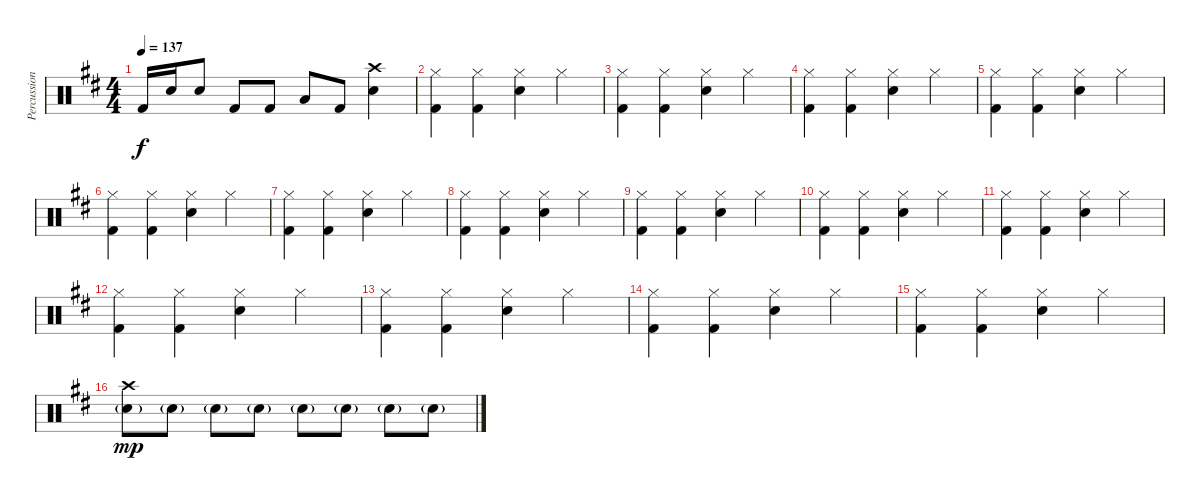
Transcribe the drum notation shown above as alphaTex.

\track ("Percussion" "Percussion") {instrument percussion}
\staff {score}
\articulation defaults
\ts (4 4)
\tempo 137
\clef neutral
\ks d "Kick (hit) 2".16{dy f} "Snare (hit) 2".16 "Snare (hit) 2".8 "Kick (hit) 2".8 "Kick (hit) 2".8 "Low Tom (hit)".8 "Kick (hit) 2".8
("Crash high (hit)" "Snare (hit) 2").4 |
("Hi-Hat (closed)" "Kick (hit) 2").4 ("Hi-Hat (closed)" "Kick (hit) 2").4 ("Hi-Hat (closed)" "Snare (hit) 2").4 "Hi-Hat (closed)".4 |
("Hi-Hat (closed)" "Kick (hit) 2").4 ("Hi-Hat (closed)" "Kick (hit) 2").4 ("Hi-Hat (closed)" "Snare (hit) 2").4 "Hi-Hat (closed)".4 |
("Hi-Hat (closed)" "Kick (hit) 2").4 ("Hi-Hat (closed)" "Kick (hit) 2").4 ("Hi-Hat (closed)" "Snare (hit) 2").4 "Hi-Hat (closed)".4 |
("Hi-Hat (closed)" "Kick (hit) 2").4 ("Hi-Hat (closed)" "Kick (hit) 2").4 ("Hi-Hat (closed)" "Snare (hit) 2").4 "Hi-Hat (closed)".4 |
("Hi-Hat (closed)" "Kick (hit) 2").4 ("Hi-Hat (closed)" "Kick (hit) 2").4 ("Hi-Hat (closed)" "Snare (hit) 2").4 "Hi-Hat (closed)".4 |
("Hi-Hat (closed)" "Kick (hit) 2").4 ("Hi-Hat (closed)" "Kick (hit) 2").4 ("Hi-Hat (closed)" "Snare (hit) 2").4 "Hi-Hat (closed)".4 |
("Hi-Hat (closed)" "Kick (hit) 2").4 ("Hi-Hat (closed)" "Kick (hit) 2").4 ("Hi-Hat (closed)" "Snare (hit) 2").4 "Hi-Hat (closed)".4 |
("Hi-Hat (closed)" "Kick (hit) 2").4 ("Hi-Hat (closed)" "Kick (hit) 2").4 ("Hi-Hat (closed)" "Snare (hit) 2").4 "Hi-Hat (closed)".4 |
("Hi-Hat (closed)" "Kick (hit) 2").4 ("Hi-Hat (closed)" "Kick (hit) 2").4 ("Hi-Hat (closed)" "Snare (hit) 2").4 "Hi-Hat (closed)".4 |
("Hi-Hat (closed)" "Kick (hit) 2").4 ("Hi-Hat (closed)" "Kick (hit) 2").4 ("Hi-Hat (closed)" "Snare (hit) 2").4 "Hi-Hat (closed)".4 |
("Hi-Hat (closed)" "Kick (hit) 2").4 ("Hi-Hat (closed)" "Kick (hit) 2").4 ("Hi-Hat (closed)" "Snare (hit) 2").4 "Hi-Hat (closed)".4 |
("Hi-Hat (closed)" "Kick (hit) 2").4 ("Hi-Hat (closed)" "Kick (hit) 2").4 ("Hi-Hat (closed)" "Snare (hit) 2").4 "Hi-Hat (closed)".4 |
("Hi-Hat (closed)" "Kick (hit) 2").4 ("Hi-Hat (closed)" "Kick (hit) 2").4 ("Hi-Hat (closed)" "Snare (hit) 2").4 "Hi-Hat (closed)".4 |
("Hi-Hat (closed)" "Kick (hit) 2").4 ("Hi-Hat (closed)" "Kick (hit) 2").4 ("Hi-Hat (closed)" "Snare (hit) 2").4 "Hi-Hat (closed)".4 |
("Crash high (hit)" "Snare (hit) 2"{g}).8{dy mp} "Snare (hit) 2"{g}.8 "Snare (hit) 2"{g}.8 "Snare (hit) 2"{g}.8 "Snare (hit) 2"{g}.8 "Snare (hit) 2"{g}.8 "Snare (hit) 2"{g}.8 "Snare (hit) 2"{g}.8
